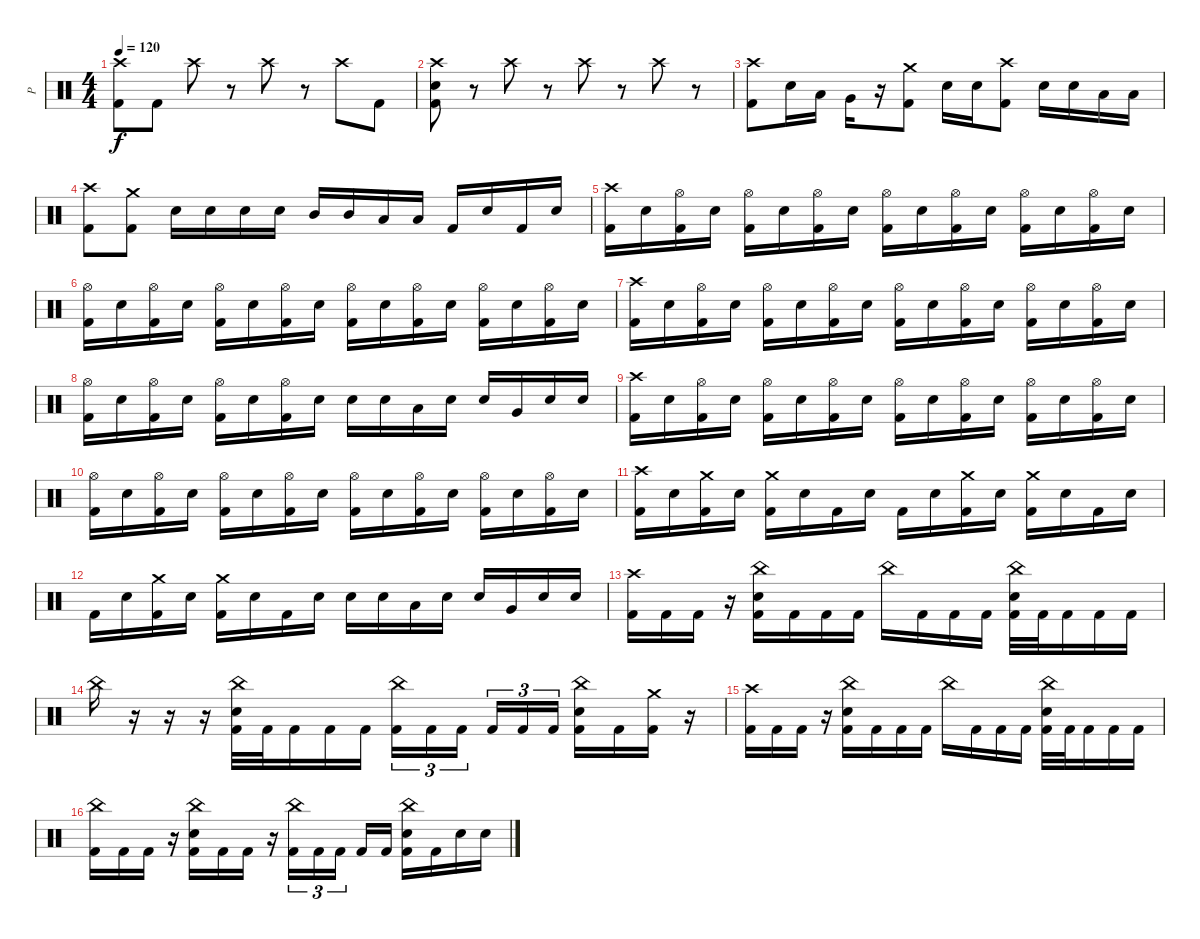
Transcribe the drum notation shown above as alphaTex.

\track ("P" "P") {instrument percussion}
\staff {score}
\articulation defaults
\ts (4 4)
\tempo 120
\clef neutral
\ks c
("Crash high (hit)" "Kick (hit) 2").8{dy f} "Kick (hit) 2".8 "Crash high (hit)".8 r.8 "Crash high (hit)".8 r.8 "Crash high (hit)".8 "Kick (hit) 2".8 |
("Crash high (hit)" "Electric Snare (hit)" "Kick (hit) 2").8 r.8 "Crash high (hit)".8 r.8 "Crash high (hit)".8 r.8 "Crash high (hit)".8 r.8 |
("Crash high (hit)" "Kick (hit) 2").8 "Electric Snare (hit)".16 "Low Tom (hit)".16 "Very Low Tom (hit)".16 r.16 ("Crash medium (hit)" "Kick (hit) 2").8 "Electric Snare (hit)".16 "Electric Snare (hit)".16 ("Crash high (hit)" "Kick (hit) 2").8 "Electric Snare (hit)".16 "Electric Snare (hit)".16 "Low Tom (hit)".16 "Low Tom (hit)".16 |
("Crash high (hit)" "Kick (hit) 2").8 ("Crash medium (hit)" "Kick (hit) 2").8 "Electric Snare (hit)".16 "Electric Snare (hit)".16 "Electric Snare (hit)".16 "Electric Snare (hit)".16 "Mid Tom (hit)".16 "Mid Tom (hit)".16 "Low Tom (hit)".16 "Low Tom (hit)".16 "Kick (hit) 2".16 "Electric Snare (hit)".16 "Kick (hit) 2".16 "Electric Snare (hit)".16 |
("Crash high (hit)" "Kick (hit) 2").16 "Electric Snare (hit)".16 ("Hi-Hat (open)" "Kick (hit) 2").16 "Electric Snare (hit)".16 ("Hi-Hat (open)" "Kick (hit) 2").16 "Electric Snare (hit)".16 ("Hi-Hat (open)" "Kick (hit) 2").16 "Electric Snare (hit)".16 ("Hi-Hat (open)" "Kick (hit) 2").16 "Electric Snare (hit)".16 ("Hi-Hat (open)" "Kick (hit) 2").16 "Electric Snare (hit)".16 ("Hi-Hat (open)" "Kick (hit) 2").16 "Electric Snare (hit)".16 ("Hi-Hat (open)" "Kick (hit) 2").16 "Electric Snare (hit)".16 |
("Hi-Hat (open)" "Kick (hit) 2").16 "Electric Snare (hit)".16 ("Hi-Hat (open)" "Kick (hit) 2").16 "Electric Snare (hit)".16 ("Hi-Hat (open)" "Kick (hit) 2").16 "Electric Snare (hit)".16 ("Hi-Hat (open)" "Kick (hit) 2").16 "Electric Snare (hit)".16 ("Hi-Hat (open)" "Kick (hit) 2").16 "Electric Snare (hit)".16 ("Hi-Hat (open)" "Kick (hit) 2").16 "Electric Snare (hit)".16 ("Hi-Hat (open)" "Kick (hit) 2").16 "Electric Snare (hit)".16 ("Hi-Hat (open)" "Kick (hit) 2").16 "Electric Snare (hit)".16 |
("Crash high (hit)" "Kick (hit) 2").16 "Electric Snare (hit)".16 ("Hi-Hat (open)" "Kick (hit) 2").16 "Electric Snare (hit)".16 ("Hi-Hat (open)" "Kick (hit) 2").16 "Electric Snare (hit)".16 ("Hi-Hat (open)" "Kick (hit) 2").16 "Electric Snare (hit)".16 ("Hi-Hat (open)" "Kick (hit) 2").16 "Electric Snare (hit)".16 ("Hi-Hat (open)" "Kick (hit) 2").16 "Electric Snare (hit)".16 ("Hi-Hat (open)" "Kick (hit) 2").16 "Electric Snare (hit)".16 ("Hi-Hat (open)" "Kick (hit) 2").16 "Electric Snare (hit)".16 |
("Hi-Hat (open)" "Kick (hit) 2").16 "Electric Snare (hit)".16 ("Hi-Hat (open)" "Kick (hit) 2").16 "Electric Snare (hit)".16 ("Hi-Hat (open)" "Kick (hit) 2").16 "Electric Snare (hit)".16 ("Hi-Hat (open)" "Kick (hit) 2").16 "Electric Snare (hit)".16 "Electric Snare (hit)".16 "Electric Snare (hit)".16 "Low Tom (hit)".16 "Electric Snare (hit)".16 "Electric Snare (hit)".16 "Very Low Tom (hit)".16 "Electric Snare (hit)".16 "Electric Snare (hit)".16 |
("Crash high (hit)" "Kick (hit) 2").16 "Electric Snare (hit)".16 ("Hi-Hat (open)" "Kick (hit) 2").16 "Electric Snare (hit)".16 ("Hi-Hat (open)" "Kick (hit) 2").16 "Electric Snare (hit)".16 ("Hi-Hat (open)" "Kick (hit) 2").16 "Electric Snare (hit)".16 ("Hi-Hat (open)" "Kick (hit) 2").16 "Electric Snare (hit)".16 ("Hi-Hat (open)" "Kick (hit) 2").16 "Electric Snare (hit)".16 ("Hi-Hat (open)" "Kick (hit) 2").16 "Electric Snare (hit)".16 ("Hi-Hat (open)" "Kick (hit) 2").16 "Electric Snare (hit)".16 |
("Hi-Hat (open)" "Kick (hit) 2").16 "Electric Snare (hit)".16 ("Hi-Hat (open)" "Kick (hit) 2").16 "Electric Snare (hit)".16 ("Hi-Hat (open)" "Kick (hit) 2").16 "Electric Snare (hit)".16 ("Hi-Hat (open)" "Kick (hit) 2").16 "Electric Snare (hit)".16 ("Hi-Hat (open)" "Kick (hit) 2").16 "Electric Snare (hit)".16 ("Hi-Hat (open)" "Kick (hit) 2").16 "Electric Snare (hit)".16 ("Hi-Hat (open)" "Kick (hit) 2").16 "Electric Snare (hit)".16 ("Hi-Hat (open)" "Kick (hit) 2").16 "Electric Snare (hit)".16 |
("Crash high (hit)" "Kick (hit) 2").16 "Electric Snare (hit)".16 ("Crash medium (hit)" "Kick (hit) 2").16 "Electric Snare (hit)".16 ("Crash medium (hit)" "Kick (hit) 2").16 "Electric Snare (hit)".16 "Kick (hit) 2".16 "Electric Snare (hit)".16 "Kick (hit) 2".16 "Electric Snare (hit)".16 ("Crash medium (hit)" "Kick (hit) 2").16 "Electric Snare (hit)".16 ("Crash medium (hit)" "Kick (hit) 2").16 "Electric Snare (hit)".16 "Kick (hit) 2".16 "Electric Snare (hit)".16 |
"Kick (hit) 2".16 "Electric Snare (hit)".16 ("Crash medium (hit)" "Kick (hit) 2").16 "Electric Snare (hit)".16 ("Crash medium (hit)" "Kick (hit) 2").16 "Electric Snare (hit)".16 "Kick (hit) 2".16 "Electric Snare (hit)".16 "Electric Snare (hit)".16 "Electric Snare (hit)".16 "Low Tom (hit)".16 "Electric Snare (hit)".16 "Electric Snare (hit)".16 "Very Low Tom (hit)".16 "Electric Snare (hit)".16 "Electric Snare (hit)".16 |
("Crash high (hit)" "Kick (hit) 2").16 "Kick (hit) 2".16 "Kick (hit) 2".16 r.16 ("China (hit)" "Electric Snare (hit)" "Kick (hit) 2").16 "Kick (hit) 2".16 "Kick (hit) 2".16 "Kick (hit) 2".16 "China (hit)".16 "Kick (hit) 2".16 "Kick (hit) 2".16 "Kick (hit) 2".16 ("China (hit)" "Electric Snare (hit)" "Kick (hit) 2").32 "Kick (hit) 2".32 "Kick (hit) 2".16 "Kick (hit) 2".16 "Kick (hit) 2".16 |
"China (hit)".16 r.16 r.16 r.16 ("China (hit)" "Electric Snare (hit)" "Kick (hit) 2").32 "Kick (hit) 2".32 "Kick (hit) 2".16 "Kick (hit) 2".16 "Kick (hit) 2".16 ("China (hit)" "Kick (hit) 2").16{tu (3 2)} "Kick (hit) 2".16{tu (3 2)} "Kick (hit) 2".16{tu (3 2) beam splitsecondary} "Kick (hit) 2".16{tu (3 2)} "Kick (hit) 2".16{tu (3 2)} "Kick (hit) 2".16{tu (3 2)} ("China (hit)" "Electric Snare (hit)" "Kick (hit) 2").16 "Kick (hit) 2".16 ("Crash medium (hit)" "Kick (hit) 2").16 r.16 |
("Crash high (hit)" "Kick (hit) 2").16 "Kick (hit) 2".16 "Kick (hit) 2".16 r.16 ("China (hit)" "Electric Snare (hit)" "Kick (hit) 2").16 "Kick (hit) 2".16 "Kick (hit) 2".16 "Kick (hit) 2".16 "China (hit)".16 "Kick (hit) 2".16 "Kick (hit) 2".16 "Kick (hit) 2".16 ("China (hit)" "Electric Snare (hit)" "Kick (hit) 2").32 "Kick (hit) 2".32 "Kick (hit) 2".16 "Kick (hit) 2".16 "Kick (hit) 2".16 |
("China (hit)" "Kick (hit) 2").16 "Kick (hit) 2".16 "Kick (hit) 2".16 r.16 ("China (hit)" "Electric Snare (hit)" "Kick (hit) 2").16 "Kick (hit) 2".16 "Kick (hit) 2".16 r.16 ("China (hit)" "Kick (hit) 2").16{tu (3 2)} "Kick (hit) 2".16{tu (3 2)} "Kick (hit) 2".16{tu (3 2) beam splitsecondary} "Kick (hit) 2".16 "Kick (hit) 2".16 ("China (hit)" "Electric Snare (hit)" "Kick (hit) 2").16 "Kick (hit) 2".16 "Electric Snare (hit)".16 "Electric Snare (hit)".16
